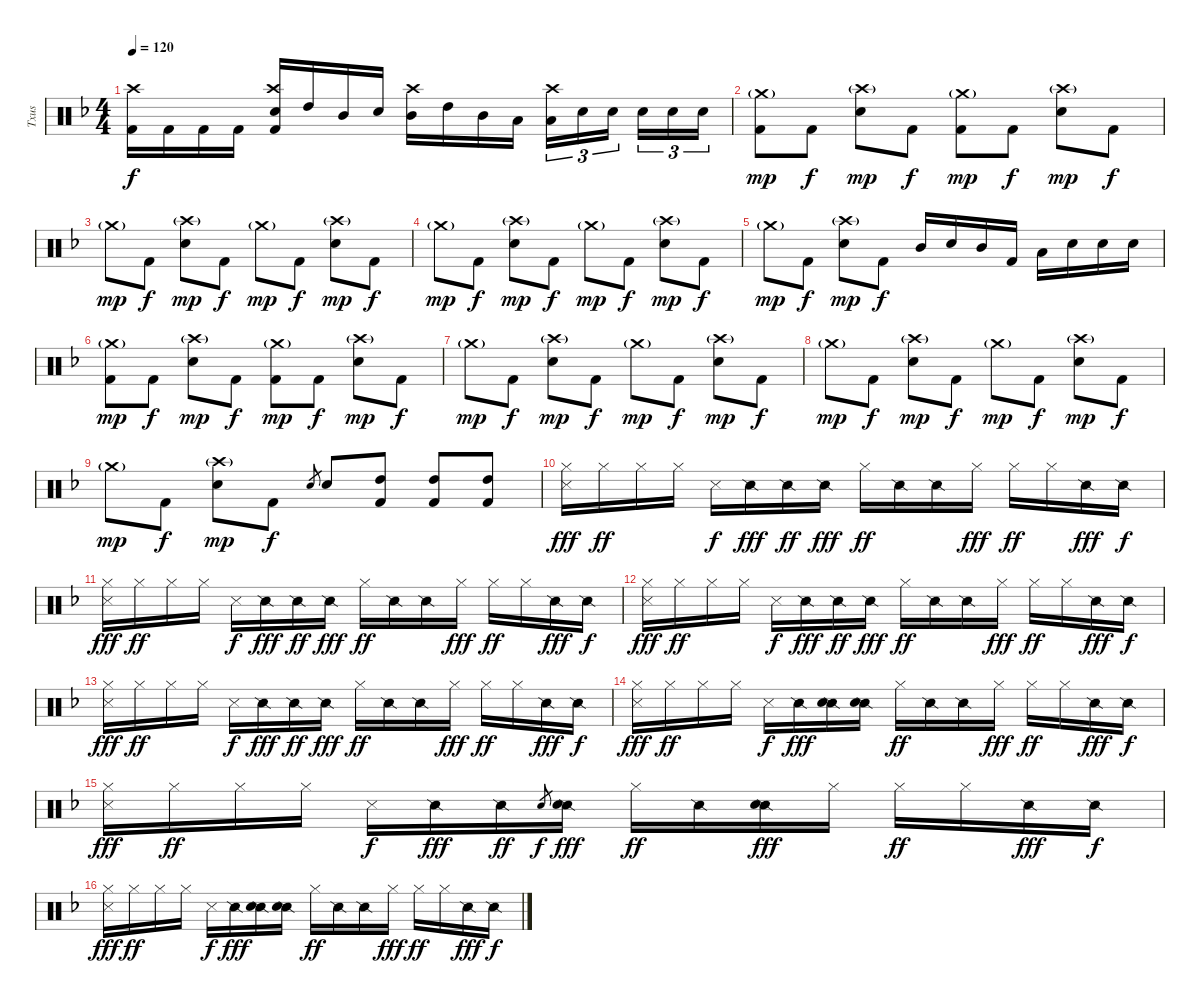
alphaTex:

\track ("Txus" "Txus") {instrument percussion}
\staff {score}
\articulation defaults
\ts (4 4)
\tempo 120
\clef neutral
\ks dminor
("Kick (hit) 2" "Crash high (hit)").16{dy f} "Kick (hit) 2".16 "Kick (hit) 2".16 "Kick (hit) 2".16 ("Kick (hit) 2" "Electric Snare (hit)" "Crash high (hit)").16 "High Tom (hit)".16 "Mid Tom (hit)".16 "Electric Snare (hit)".16 ("Mid Tom (hit)" "Crash high (hit)").16 "High Tom (hit)".16 "Mid Tom (hit)".16 "Low Tom (hit)".16 ("Low Tom (hit)" "Crash high (hit)").16{tu (3 2)} "Electric Snare (hit)".16{tu (3 2)} "Electric Snare (hit)".16{tu (3 2) beam splitsecondary} "Electric Snare (hit)".16{tu (3 2)} "Electric Snare (hit)".16{tu (3 2)} "Electric Snare (hit)".16{tu (3 2)} |
("Crash medium (hit)"{g} "Kick (hit) 2").8{dy mp} "Kick (hit) 2".8{dy f} ("Crash high (hit)"{g} "Electric Snare (hit)").8{dy mp} "Kick (hit) 2".8{dy f} ("Crash medium (hit)"{g} "Kick (hit) 2").8{dy mp} "Kick (hit) 2".8{dy f} ("Crash high (hit)"{g} "Electric Snare (hit)").8{dy mp} "Kick (hit) 2".8{dy f} |
"Crash medium (hit)"{g}.8{dy mp} "Kick (hit) 2".8{dy f} ("Crash high (hit)"{g} "Electric Snare (hit)").8{dy mp} "Kick (hit) 2".8{dy f} "Crash medium (hit)"{g}.8{dy mp} "Kick (hit) 2".8{dy f} ("Crash high (hit)"{g} "Electric Snare (hit)").8{dy mp} "Kick (hit) 2".8{dy f} |
"Crash medium (hit)"{g}.8{dy mp} "Kick (hit) 2".8{dy f} ("Crash high (hit)"{g} "Electric Snare (hit)").8{dy mp} "Kick (hit) 2".8{dy f} "Crash medium (hit)"{g}.8{dy mp} "Kick (hit) 2".8{dy f} ("Crash high (hit)"{g} "Electric Snare (hit)").8{dy mp} "Kick (hit) 2".8{dy f} |
"Crash medium (hit)"{g}.8{dy mp} "Kick (hit) 2".8{dy f} ("Crash high (hit)"{g} "Electric Snare (hit)").8{dy mp} "Kick (hit) 2".8{dy f} "Mid Tom (hit)".16 "Electric Snare (hit)".16 "Mid Tom (hit)".16 "Kick (hit) 2".16 "Low Tom (hit)".16 "Electric Snare (hit)".16 "Electric Snare (hit)".16 "Electric Snare (hit)".16 |
("Crash medium (hit)"{g} "Kick (hit) 2").8{dy mp} "Kick (hit) 2".8{dy f} ("Crash high (hit)"{g} "Electric Snare (hit)").8{dy mp} "Kick (hit) 2".8{dy f} ("Crash medium (hit)"{g} "Kick (hit) 2").8{dy mp} "Kick (hit) 2".8{dy f} ("Crash high (hit)"{g} "Electric Snare (hit)").8{dy mp} "Kick (hit) 2".8{dy f} |
"Crash medium (hit)"{g}.8{dy mp} "Kick (hit) 2".8{dy f} ("Crash high (hit)"{g} "Electric Snare (hit)").8{dy mp} "Kick (hit) 2".8{dy f} "Crash medium (hit)"{g}.8{dy mp} "Kick (hit) 2".8{dy f} ("Crash high (hit)"{g} "Electric Snare (hit)").8{dy mp} "Kick (hit) 2".8{dy f} |
"Crash medium (hit)"{g}.8{dy mp} "Kick (hit) 2".8{dy f} ("Crash high (hit)"{g} "Electric Snare (hit)").8{dy mp} "Kick (hit) 2".8{dy f} "Crash medium (hit)"{g}.8{dy mp} "Kick (hit) 2".8{dy f} ("Crash high (hit)"{g} "Electric Snare (hit)").8{dy mp} "Kick (hit) 2".8{dy f} |
"Crash medium (hit)"{g}.8{dy mp} "Kick (hit) 2".8{dy f} ("Crash high (hit)"{g} "Electric Snare (hit)").8{dy mp} "Kick (hit) 2".8{dy f} "Electric Snare (hit)".8{gr} "Electric Snare (hit)".8 ("High Tom (hit)" "Kick (hit) 2").8 ("High Tom (hit)" "Kick (hit) 2").8 ("High Tom (hit)" "Kick (hit) 2").8 |
("Hi-Hat (closed)" "Metronome (hit)").16{dy fff} "Hi-Hat (closed)".16{dy ff} "Hi-Hat (closed)".16 "Hi-Hat (closed)".16 "Metronome (hit)".16{dy f} "Snare (side stick) 2".16{dy fff} "Snare (side stick) 2".16{dy ff} "Snare (side stick) 2".16{dy fff} "Hi-Hat (closed)".16{dy ff} "Snare (side stick) 2".16 "Snare (side stick) 2".16 "Hi-Hat (closed)".16{dy fff} "Hi-Hat (closed)".16{dy ff} "Hi-Hat (closed)".16 "Snare (side stick) 2".16{dy fff} "Snare (side stick) 2".16{dy f} |
("Hi-Hat (closed)" "Metronome (hit)").16{dy fff} "Hi-Hat (closed)".16{dy ff} "Hi-Hat (closed)".16 "Hi-Hat (closed)".16 "Metronome (hit)".16{dy f} "Snare (side stick) 2".16{dy fff} "Snare (side stick) 2".16{dy ff} "Snare (side stick) 2".16{dy fff} "Hi-Hat (closed)".16{dy ff} "Snare (side stick) 2".16 "Snare (side stick) 2".16 "Hi-Hat (closed)".16{dy fff} "Hi-Hat (closed)".16{dy ff} "Hi-Hat (closed)".16 "Snare (side stick) 2".16{dy fff} "Snare (side stick) 2".16{dy f} |
("Hi-Hat (closed)" "Metronome (hit)").16{dy fff} "Hi-Hat (closed)".16{dy ff} "Hi-Hat (closed)".16 "Hi-Hat (closed)".16 "Metronome (hit)".16{dy f} "Snare (side stick) 2".16{dy fff} "Snare (side stick) 2".16{dy ff} "Snare (side stick) 2".16{dy fff} "Hi-Hat (closed)".16{dy ff} "Snare (side stick) 2".16 "Snare (side stick) 2".16 "Hi-Hat (closed)".16{dy fff} "Hi-Hat (closed)".16{dy ff} "Hi-Hat (closed)".16 "Snare (side stick) 2".16{dy fff} "Snare (side stick) 2".16{dy f} |
("Hi-Hat (closed)" "Metronome (hit)").16{dy fff} "Hi-Hat (closed)".16{dy ff} "Hi-Hat (closed)".16 "Hi-Hat (closed)".16 "Metronome (hit)".16{dy f} "Snare (side stick) 2".16{dy fff} "Snare (side stick) 2".16{dy ff} "Snare (side stick) 2".16{dy fff} "Hi-Hat (closed)".16{dy ff} "Snare (side stick) 2".16 "Snare (side stick) 2".16 "Hi-Hat (closed)".16{dy fff} "Hi-Hat (closed)".16{dy ff} "Hi-Hat (closed)".16 "Snare (side stick) 2".16{dy fff} "Snare (side stick) 2".16{dy f} |
("Hi-Hat (closed)" "Metronome (hit)").16{dy fff} "Hi-Hat (closed)".16{dy ff} "Hi-Hat (closed)".16 "Hi-Hat (closed)".16 "Metronome (hit)".16{dy f} "Snare (side stick) 2".16{dy fff} ("Snare (side stick) 2" "Electric Snare (hit)").16 ("Snare (side stick) 2" "Electric Snare (hit)").16 "Hi-Hat (closed)".16{dy ff} "Snare (side stick) 2".16 "Snare (side stick) 2".16 "Hi-Hat (closed)".16{dy fff} "Hi-Hat (closed)".16{dy ff} "Hi-Hat (closed)".16 "Snare (side stick) 2".16{dy fff} "Snare (side stick) 2".16{dy f} |
("Hi-Hat (closed)" "Metronome (hit)").16{dy fff} "Hi-Hat (closed)".16{dy ff} "Hi-Hat (closed)".16 "Hi-Hat (closed)".16 "Metronome (hit)".16{dy f} "Snare (side stick) 2".16{dy fff} "Snare (side stick) 2".16{dy ff} "Electric Snare (hit)".8{gr dy f} ("Snare (side stick) 2" "Electric Snare (hit)").16{dy fff} "Hi-Hat (closed)".16{dy ff} "Snare (side stick) 2".16 ("Snare (side stick) 2" "Electric Snare (hit)").16{dy fff} "Hi-Hat (closed)".16 "Hi-Hat (closed)".16{dy ff} "Hi-Hat (closed)".16 "Snare (side stick) 2".16{dy fff} "Snare (side stick) 2".16{dy f} |
("Hi-Hat (closed)" "Metronome (hit)").16{dy fff} "Hi-Hat (closed)".16{dy ff} "Hi-Hat (closed)".16 "Hi-Hat (closed)".16 "Metronome (hit)".16{dy f} "Snare (side stick) 2".16{dy fff} ("Snare (side stick) 2" "Electric Snare (hit)").16 ("Snare (side stick) 2" "Electric Snare (hit)").16 "Hi-Hat (closed)".16{dy ff} "Snare (side stick) 2".16 "Snare (side stick) 2".16 "Hi-Hat (closed)".16{dy fff} "Hi-Hat (closed)".16{dy ff} "Hi-Hat (closed)".16 "Snare (side stick) 2".16{dy fff} "Snare (side stick) 2".16{dy f}
